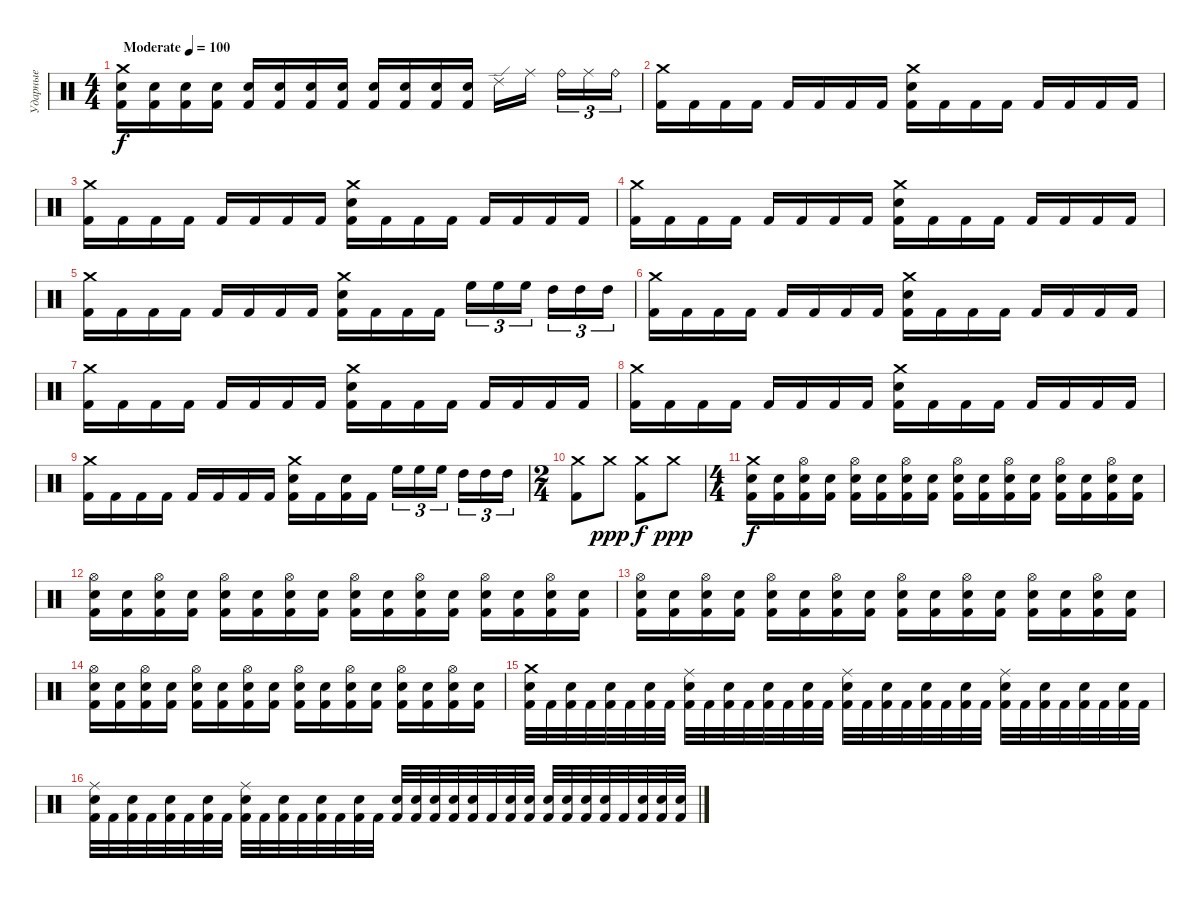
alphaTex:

\track ("Ударные" "Ударные") {instrument percussion}
\staff {score}
\articulation defaults
\ts (4 4)
\tempo (100 "Moderate")
\clef neutral
\ks c
("Crash medium (hit)" "Electric Snare (hit)" "Kick (hit) 2").16{dy f} ("Electric Snare (hit)" "Kick (hit) 2").16 ("Electric Snare (hit)" "Kick (hit) 2").16 ("Electric Snare (hit)" "Kick (hit) 2").16 ("Electric Snare (hit)" "Kick (hit) 2").16 ("Electric Snare (hit)" "Kick (hit) 2").16 ("Electric Snare (hit)" "Kick (hit) 2").16 ("Electric Snare (hit)" "Kick (hit) 2").16 ("Electric Snare (hit)" "Kick (hit) 2").16 ("Electric Snare (hit)" "Kick (hit) 2").16 ("Electric Snare (hit)" "Kick (hit) 2").16 ("Electric Snare (hit)" "Kick (hit) 2").16 "Ride (edge) 2".16 "Ride (middle)".16{beam splitsecondary} "Ride (bell)".16{tu (3 2)} "Ride (middle)".16{tu (3 2)} "Ride (bell)".16{tu (3 2)} |
("Crash medium (hit)" "Kick (hit) 2").16 "Kick (hit) 2".16 "Kick (hit) 2".16 "Kick (hit) 2".16 "Kick (hit) 2".16 "Kick (hit) 2".16 "Kick (hit) 2".16 "Kick (hit) 2".16 ("Crash medium (hit)" "Electric Snare (hit)" "Kick (hit) 2").16 "Kick (hit) 2".16 "Kick (hit) 2".16 "Kick (hit) 2".16 "Kick (hit) 2".16 "Kick (hit) 2".16 "Kick (hit) 2".16 "Kick (hit) 2".16 |
("Crash medium (hit)" "Kick (hit) 2").16 "Kick (hit) 2".16 "Kick (hit) 2".16 "Kick (hit) 2".16 "Kick (hit) 2".16 "Kick (hit) 2".16 "Kick (hit) 2".16 "Kick (hit) 2".16 ("Crash medium (hit)" "Electric Snare (hit)" "Kick (hit) 2").16 "Kick (hit) 2".16 "Kick (hit) 2".16 "Kick (hit) 2".16 "Kick (hit) 2".16 "Kick (hit) 2".16 "Kick (hit) 2".16 "Kick (hit) 2".16 |
("Crash medium (hit)" "Kick (hit) 2").16 "Kick (hit) 2".16 "Kick (hit) 2".16 "Kick (hit) 2".16 "Kick (hit) 2".16 "Kick (hit) 2".16 "Kick (hit) 2".16 "Kick (hit) 2".16 ("Crash medium (hit)" "Electric Snare (hit)" "Kick (hit) 2").16 "Kick (hit) 2".16 "Kick (hit) 2".16 "Kick (hit) 2".16 "Kick (hit) 2".16 "Kick (hit) 2".16 "Kick (hit) 2".16 "Kick (hit) 2".16 |
("Crash medium (hit)" "Kick (hit) 2").16 "Kick (hit) 2".16 "Kick (hit) 2".16 "Kick (hit) 2".16 "Kick (hit) 2".16 "Kick (hit) 2".16 "Kick (hit) 2".16 "Kick (hit) 2".16 ("Crash medium (hit)" "Electric Snare (hit)" "Kick (hit) 2").16 "Kick (hit) 2".16 "Kick (hit) 2".16 "Kick (hit) 2".16 "High Floor Tom (hit)".16{tu (3 2)} "High Floor Tom (hit)".16{tu (3 2)} "High Floor Tom (hit)".16{tu (3 2) beam splitsecondary} "High Tom (hit)".16{tu (3 2)} "High Tom (hit)".16{tu (3 2)} "High Tom (hit)".16{tu (3 2)} |
("Crash medium (hit)" "Kick (hit) 2").16 "Kick (hit) 2".16 "Kick (hit) 2".16 "Kick (hit) 2".16 "Kick (hit) 2".16 "Kick (hit) 2".16 "Kick (hit) 2".16 "Kick (hit) 2".16 ("Crash medium (hit)" "Electric Snare (hit)" "Kick (hit) 2").16 "Kick (hit) 2".16 "Kick (hit) 2".16 "Kick (hit) 2".16 "Kick (hit) 2".16 "Kick (hit) 2".16 "Kick (hit) 2".16 "Kick (hit) 2".16 |
("Crash medium (hit)" "Kick (hit) 2").16 "Kick (hit) 2".16 "Kick (hit) 2".16 "Kick (hit) 2".16 "Kick (hit) 2".16 "Kick (hit) 2".16 "Kick (hit) 2".16 "Kick (hit) 2".16 ("Crash medium (hit)" "Electric Snare (hit)" "Kick (hit) 2").16 "Kick (hit) 2".16 "Kick (hit) 2".16 "Kick (hit) 2".16 "Kick (hit) 2".16 "Kick (hit) 2".16 "Kick (hit) 2".16 "Kick (hit) 2".16 |
("Crash medium (hit)" "Kick (hit) 2").16 "Kick (hit) 2".16 "Kick (hit) 2".16 "Kick (hit) 2".16 "Kick (hit) 2".16 "Kick (hit) 2".16 "Kick (hit) 2".16 "Kick (hit) 2".16 ("Crash medium (hit)" "Electric Snare (hit)" "Kick (hit) 2").16 "Kick (hit) 2".16 "Kick (hit) 2".16 "Kick (hit) 2".16 "Kick (hit) 2".16 "Kick (hit) 2".16 "Kick (hit) 2".16 "Kick (hit) 2".16 |
("Crash medium (hit)" "Kick (hit) 2").16 "Kick (hit) 2".16 "Kick (hit) 2".16 "Kick (hit) 2".16 "Kick (hit) 2".16 "Kick (hit) 2".16 "Kick (hit) 2".16 "Kick (hit) 2".16 ("Crash medium (hit)" "Electric Snare (hit)" "Kick (hit) 2").16 "Kick (hit) 2".16 ("Electric Snare (hit)" "Kick (hit) 2").16 "Kick (hit) 2".16 "High Floor Tom (hit)".16{tu (3 2)} "High Floor Tom (hit)".16{tu (3 2)} "High Floor Tom (hit)".16{tu (3 2) beam splitsecondary} "High Tom (hit)".16{tu (3 2)} "High Tom (hit)".16{tu (3 2)} "High Tom (hit)".16{tu (3 2)} |
\ts (2 4)
("Crash medium (hit)" "Kick (hit) 2").8 "Crash medium (hit)".8{dy ppp} ("Crash medium (hit)" "Kick (hit) 2").8{dy f} "Crash medium (hit)".8{dy ppp} |
\ts (4 4)
("Crash medium (hit)" "Electric Snare (hit)" "Kick (hit) 2").16{dy f} ("Electric Snare (hit)" "Kick (hit) 2").16 ("Hi-Hat (open)" "Electric Snare (hit)" "Kick (hit) 2").16 ("Electric Snare (hit)" "Kick (hit) 2").16 ("Hi-Hat (open)" "Electric Snare (hit)" "Kick (hit) 2").16 ("Electric Snare (hit)" "Kick (hit) 2").16 ("Hi-Hat (open)" "Electric Snare (hit)" "Kick (hit) 2").16 ("Electric Snare (hit)" "Kick (hit) 2").16 ("Hi-Hat (open)" "Electric Snare (hit)" "Kick (hit) 2").16 ("Electric Snare (hit)" "Kick (hit) 2").16 ("Hi-Hat (open)" "Electric Snare (hit)" "Kick (hit) 2").16 ("Electric Snare (hit)" "Kick (hit) 2").16 ("Hi-Hat (open)" "Electric Snare (hit)" "Kick (hit) 2").16 ("Electric Snare (hit)" "Kick (hit) 2").16 ("Hi-Hat (open)" "Electric Snare (hit)" "Kick (hit) 2").16 ("Electric Snare (hit)" "Kick (hit) 2").16 |
("Hi-Hat (open)" "Electric Snare (hit)" "Kick (hit) 2").16 ("Electric Snare (hit)" "Kick (hit) 2").16 ("Hi-Hat (open)" "Electric Snare (hit)" "Kick (hit) 2").16 ("Electric Snare (hit)" "Kick (hit) 2").16 ("Hi-Hat (open)" "Electric Snare (hit)" "Kick (hit) 2").16 ("Electric Snare (hit)" "Kick (hit) 2").16 ("Hi-Hat (open)" "Electric Snare (hit)" "Kick (hit) 2").16 ("Electric Snare (hit)" "Kick (hit) 2").16 ("Hi-Hat (open)" "Electric Snare (hit)" "Kick (hit) 2").16 ("Electric Snare (hit)" "Kick (hit) 2").16 ("Hi-Hat (open)" "Electric Snare (hit)" "Kick (hit) 2").16 ("Electric Snare (hit)" "Kick (hit) 2").16 ("Hi-Hat (open)" "Electric Snare (hit)" "Kick (hit) 2").16 ("Electric Snare (hit)" "Kick (hit) 2").16 ("Hi-Hat (open)" "Electric Snare (hit)" "Kick (hit) 2").16 ("Electric Snare (hit)" "Kick (hit) 2").16 |
("Hi-Hat (open)" "Electric Snare (hit)" "Kick (hit) 2").16 ("Electric Snare (hit)" "Kick (hit) 2").16 ("Hi-Hat (open)" "Electric Snare (hit)" "Kick (hit) 2").16 ("Electric Snare (hit)" "Kick (hit) 2").16 ("Hi-Hat (open)" "Electric Snare (hit)" "Kick (hit) 2").16 ("Electric Snare (hit)" "Kick (hit) 2").16 ("Hi-Hat (open)" "Electric Snare (hit)" "Kick (hit) 2").16 ("Electric Snare (hit)" "Kick (hit) 2").16 ("Hi-Hat (open)" "Electric Snare (hit)" "Kick (hit) 2").16 ("Electric Snare (hit)" "Kick (hit) 2").16 ("Hi-Hat (open)" "Electric Snare (hit)" "Kick (hit) 2").16 ("Electric Snare (hit)" "Kick (hit) 2").16 ("Hi-Hat (open)" "Electric Snare (hit)" "Kick (hit) 2").16 ("Electric Snare (hit)" "Kick (hit) 2").16 ("Hi-Hat (open)" "Electric Snare (hit)" "Kick (hit) 2").16 ("Electric Snare (hit)" "Kick (hit) 2").16 |
("Hi-Hat (open)" "Electric Snare (hit)" "Kick (hit) 2").16 ("Electric Snare (hit)" "Kick (hit) 2").16 ("Hi-Hat (open)" "Electric Snare (hit)" "Kick (hit) 2").16 ("Electric Snare (hit)" "Kick (hit) 2").16 ("Hi-Hat (open)" "Electric Snare (hit)" "Kick (hit) 2").16 ("Electric Snare (hit)" "Kick (hit) 2").16 ("Hi-Hat (open)" "Electric Snare (hit)" "Kick (hit) 2").16 ("Electric Snare (hit)" "Kick (hit) 2").16 ("Hi-Hat (open)" "Electric Snare (hit)" "Kick (hit) 2").16 ("Electric Snare (hit)" "Kick (hit) 2").16 ("Hi-Hat (open)" "Electric Snare (hit)" "Kick (hit) 2").16 ("Electric Snare (hit)" "Kick (hit) 2").16 ("Hi-Hat (open)" "Electric Snare (hit)" "Kick (hit) 2").16 ("Electric Snare (hit)" "Kick (hit) 2").16 ("Hi-Hat (open)" "Electric Snare (hit)" "Kick (hit) 2").16 ("Electric Snare (hit)" "Kick (hit) 2").16 |
("Crash medium (hit)" "Electric Snare (hit)" "Kick (hit) 2").32 "Kick (hit) 2".32 ("Electric Snare (hit)" "Kick (hit) 2").32 "Kick (hit) 2".32 ("Electric Snare (hit)" "Kick (hit) 2").32 "Kick (hit) 2".32 ("Electric Snare (hit)" "Kick (hit) 2").32 "Kick (hit) 2".32 ("Ride (middle)" "Electric Snare (hit)" "Kick (hit) 2").32 "Kick (hit) 2".32 ("Electric Snare (hit)" "Kick (hit) 2").32 "Kick (hit) 2".32 ("Electric Snare (hit)" "Kick (hit) 2").32 "Kick (hit) 2".32 ("Electric Snare (hit)" "Kick (hit) 2").32 "Kick (hit) 2".32 ("Ride (middle)" "Electric Snare (hit)" "Kick (hit) 2").32 "Kick (hit) 2".32 ("Electric Snare (hit)" "Kick (hit) 2").32 "Kick (hit) 2".32 ("Electric Snare (hit)" "Kick (hit) 2").32 "Kick (hit) 2".32 ("Electric Snare (hit)" "Kick (hit) 2").32 "Kick (hit) 2".32 ("Ride (middle)" "Electric Snare (hit)" "Kick (hit) 2").32 "Kick (hit) 2".32 ("Electric Snare (hit)" "Kick (hit) 2").32 "Kick (hit) 2".32 ("Electric Snare (hit)" "Kick (hit) 2").32 "Kick (hit) 2".32 ("Electric Snare (hit)" "Kick (hit) 2").32 "Kick (hit) 2".32 |
("Ride (middle)" "Electric Snare (hit)" "Kick (hit) 2").32 "Kick (hit) 2".32 ("Electric Snare (hit)" "Kick (hit) 2").32 "Kick (hit) 2".32 ("Electric Snare (hit)" "Kick (hit) 2").32 "Kick (hit) 2".32 ("Electric Snare (hit)" "Kick (hit) 2").32 "Kick (hit) 2".32 ("Ride (middle)" "Electric Snare (hit)" "Kick (hit) 2").32 "Kick (hit) 2".32 ("Electric Snare (hit)" "Kick (hit) 2").32 "Kick (hit) 2".32 ("Electric Snare (hit)" "Kick (hit) 2").32 "Kick (hit) 2".32 ("Electric Snare (hit)" "Kick (hit) 2").32 "Kick (hit) 2".32 ("Electric Snare (hit)" "Kick (hit) 2").32 ("Electric Snare (hit)" "Kick (hit) 2").32 ("Electric Snare (hit)" "Kick (hit) 2").32 ("Electric Snare (hit)" "Kick (hit) 2").32 ("Electric Snare (hit)" "Kick (hit) 2").32 "Kick (hit) 2".32 ("Electric Snare (hit)" "Kick (hit) 2").32 ("Electric Snare (hit)" "Kick (hit) 2").32 ("Electric Snare (hit)" "Kick (hit) 2").32 ("Electric Snare (hit)" "Kick (hit) 2").32 ("Electric Snare (hit)" "Kick (hit) 2").32 ("Electric Snare (hit)" "Kick (hit) 2").32 "Kick (hit) 2".32 ("Electric Snare (hit)" "Kick (hit) 2").32 ("Electric Snare (hit)" "Kick (hit) 2").32 ("Electric Snare (hit)" "Kick (hit) 2").32
